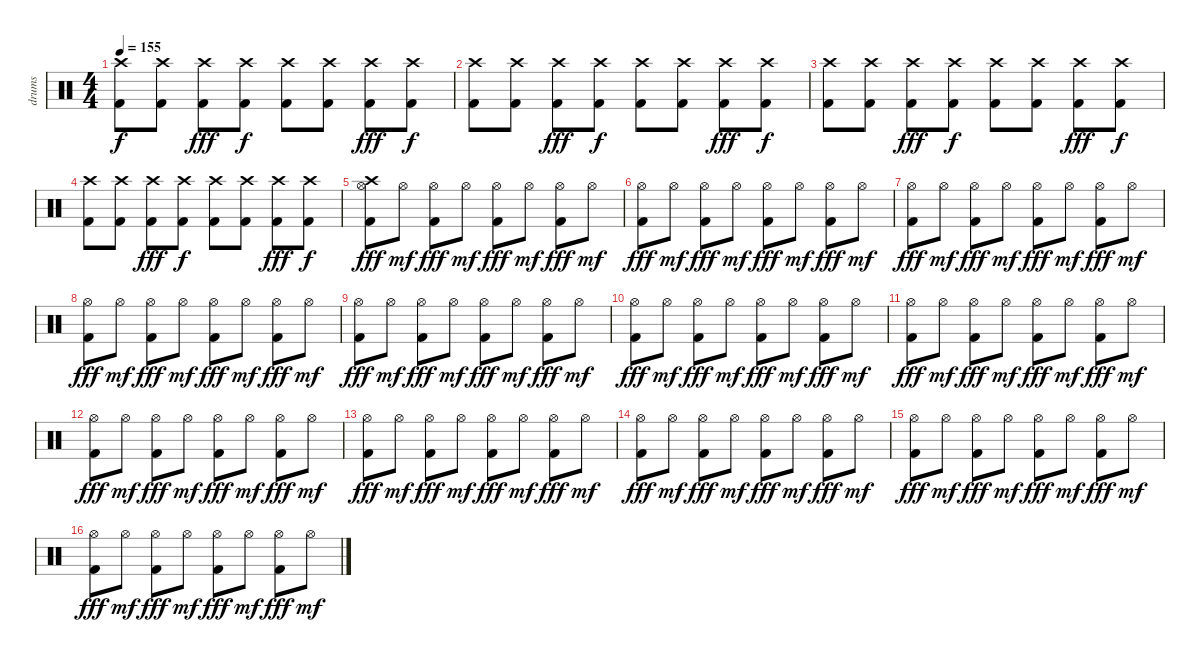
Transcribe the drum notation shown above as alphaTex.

\track ("drums" "drums") {instrument percussion}
\staff {score}
\articulation defaults
\ts (4 4)
\tempo 155
\clef neutral
\ks c
("Crash high (hit)" "Kick (hit) 2").8{dy f} ("Crash high (hit)" "Kick (hit) 2").8 ("Crash high (hit)" "Kick (hit) 2").8{dy fff} ("Crash high (hit)" "Kick (hit) 2").8{dy f} ("Crash high (hit)" "Kick (hit) 2").8 ("Crash high (hit)" "Kick (hit) 2").8 ("Crash high (hit)" "Kick (hit) 2").8{dy fff} ("Crash high (hit)" "Kick (hit) 2").8{dy f} |
("Crash high (hit)" "Kick (hit) 2").8 ("Crash high (hit)" "Kick (hit) 2").8 ("Crash high (hit)" "Kick (hit) 2").8{dy fff} ("Crash high (hit)" "Kick (hit) 2").8{dy f} ("Crash high (hit)" "Kick (hit) 2").8 ("Crash high (hit)" "Kick (hit) 2").8 ("Crash high (hit)" "Kick (hit) 2").8{dy fff} ("Crash high (hit)" "Kick (hit) 2").8{dy f} |
("Crash high (hit)" "Kick (hit) 2").8 ("Crash high (hit)" "Kick (hit) 2").8 ("Crash high (hit)" "Kick (hit) 2").8{dy fff} ("Crash high (hit)" "Kick (hit) 2").8{dy f} ("Crash high (hit)" "Kick (hit) 2").8 ("Crash high (hit)" "Kick (hit) 2").8 ("Crash high (hit)" "Kick (hit) 2").8{dy fff} ("Crash high (hit)" "Kick (hit) 2").8{dy f} |
("Crash high (hit)" "Kick (hit) 2").8 ("Crash high (hit)" "Kick (hit) 2").8 ("Crash high (hit)" "Kick (hit) 2").8{dy fff} ("Crash high (hit)" "Kick (hit) 2").8{dy f} ("Crash high (hit)" "Kick (hit) 2").8 ("Crash high (hit)" "Kick (hit) 2").8 ("Crash high (hit)" "Kick (hit) 2").8{dy fff} ("Crash high (hit)" "Kick (hit) 2").8{dy f} |
("Crash high (hit)" "Hi-Hat (open)" "Kick (hit) 2").8{dy fff} "Hi-Hat (open)".8{dy mf} ("Hi-Hat (open)" "Kick (hit) 2").8{dy fff} "Hi-Hat (open)".8{dy mf} ("Hi-Hat (open)" "Kick (hit) 2").8{dy fff} "Hi-Hat (open)".8{dy mf} ("Hi-Hat (open)" "Kick (hit) 2").8{dy fff} "Hi-Hat (open)".8{dy mf} |
("Hi-Hat (open)" "Kick (hit) 2").8{dy fff} "Hi-Hat (open)".8{dy mf} ("Hi-Hat (open)" "Kick (hit) 2").8{dy fff} "Hi-Hat (open)".8{dy mf} ("Hi-Hat (open)" "Kick (hit) 2").8{dy fff} "Hi-Hat (open)".8{dy mf} ("Hi-Hat (open)" "Kick (hit) 2").8{dy fff} "Hi-Hat (open)".8{dy mf} |
("Hi-Hat (open)" "Kick (hit) 2").8{dy fff} "Hi-Hat (open)".8{dy mf} ("Hi-Hat (open)" "Kick (hit) 2").8{dy fff} "Hi-Hat (open)".8{dy mf} ("Hi-Hat (open)" "Kick (hit) 2").8{dy fff} "Hi-Hat (open)".8{dy mf} ("Hi-Hat (open)" "Kick (hit) 2").8{dy fff} "Hi-Hat (open)".8{dy mf} |
("Hi-Hat (open)" "Kick (hit) 2").8{dy fff} "Hi-Hat (open)".8{dy mf} ("Hi-Hat (open)" "Kick (hit) 2").8{dy fff} "Hi-Hat (open)".8{dy mf} ("Hi-Hat (open)" "Kick (hit) 2").8{dy fff} "Hi-Hat (open)".8{dy mf} ("Hi-Hat (open)" "Kick (hit) 2").8{dy fff} "Hi-Hat (open)".8{dy mf} |
("Hi-Hat (open)" "Kick (hit) 2").8{dy fff} "Hi-Hat (open)".8{dy mf} ("Hi-Hat (open)" "Kick (hit) 2").8{dy fff} "Hi-Hat (open)".8{dy mf} ("Hi-Hat (open)" "Kick (hit) 2").8{dy fff} "Hi-Hat (open)".8{dy mf} ("Hi-Hat (open)" "Kick (hit) 2").8{dy fff} "Hi-Hat (open)".8{dy mf} |
("Hi-Hat (open)" "Kick (hit) 2").8{dy fff} "Hi-Hat (open)".8{dy mf} ("Hi-Hat (open)" "Kick (hit) 2").8{dy fff} "Hi-Hat (open)".8{dy mf} ("Hi-Hat (open)" "Kick (hit) 2").8{dy fff} "Hi-Hat (open)".8{dy mf} ("Hi-Hat (open)" "Kick (hit) 2").8{dy fff} "Hi-Hat (open)".8{dy mf} |
("Hi-Hat (open)" "Kick (hit) 2").8{dy fff} "Hi-Hat (open)".8{dy mf} ("Hi-Hat (open)" "Kick (hit) 2").8{dy fff} "Hi-Hat (open)".8{dy mf} ("Hi-Hat (open)" "Kick (hit) 2").8{dy fff} "Hi-Hat (open)".8{dy mf} ("Hi-Hat (open)" "Kick (hit) 2").8{dy fff} "Hi-Hat (open)".8{dy mf} |
("Hi-Hat (open)" "Kick (hit) 2").8{dy fff} "Hi-Hat (open)".8{dy mf} ("Hi-Hat (open)" "Kick (hit) 2").8{dy fff} "Hi-Hat (open)".8{dy mf} ("Hi-Hat (open)" "Kick (hit) 2").8{dy fff} "Hi-Hat (open)".8{dy mf} ("Hi-Hat (open)" "Kick (hit) 2").8{dy fff} "Hi-Hat (open)".8{dy mf} |
("Hi-Hat (open)" "Kick (hit) 2").8{dy fff} "Hi-Hat (open)".8{dy mf} ("Hi-Hat (open)" "Kick (hit) 2").8{dy fff} "Hi-Hat (open)".8{dy mf} ("Hi-Hat (open)" "Kick (hit) 2").8{dy fff} "Hi-Hat (open)".8{dy mf} ("Hi-Hat (open)" "Kick (hit) 2").8{dy fff} "Hi-Hat (open)".8{dy mf} |
("Hi-Hat (open)" "Kick (hit) 2").8{dy fff} "Hi-Hat (open)".8{dy mf} ("Hi-Hat (open)" "Kick (hit) 2").8{dy fff} "Hi-Hat (open)".8{dy mf} ("Hi-Hat (open)" "Kick (hit) 2").8{dy fff} "Hi-Hat (open)".8{dy mf} ("Hi-Hat (open)" "Kick (hit) 2").8{dy fff} "Hi-Hat (open)".8{dy mf} |
("Hi-Hat (open)" "Kick (hit) 2").8{dy fff} "Hi-Hat (open)".8{dy mf} ("Hi-Hat (open)" "Kick (hit) 2").8{dy fff} "Hi-Hat (open)".8{dy mf} ("Hi-Hat (open)" "Kick (hit) 2").8{dy fff} "Hi-Hat (open)".8{dy mf} ("Hi-Hat (open)" "Kick (hit) 2").8{dy fff} "Hi-Hat (open)".8{dy mf} |
("Hi-Hat (open)" "Kick (hit) 2").8{dy fff} "Hi-Hat (open)".8{dy mf} ("Hi-Hat (open)" "Kick (hit) 2").8{dy fff} "Hi-Hat (open)".8{dy mf} ("Hi-Hat (open)" "Kick (hit) 2").8{dy fff} "Hi-Hat (open)".8{dy mf} ("Hi-Hat (open)" "Kick (hit) 2").8{dy fff} "Hi-Hat (open)".8{dy mf}
